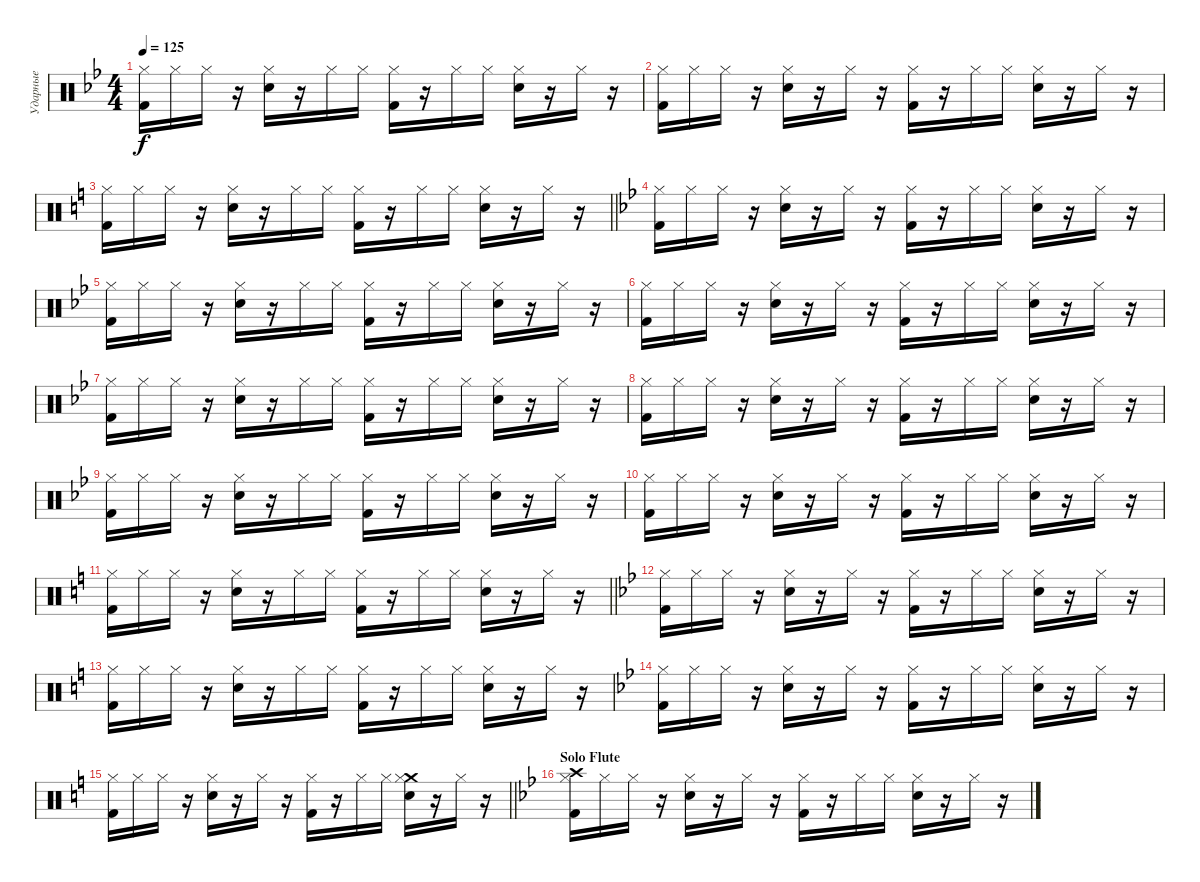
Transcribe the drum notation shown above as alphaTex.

\track ("Ударные" "Ударные") {instrument percussion}
\staff {score}
\articulation defaults
\ts (4 4)
\tempo 125
\clef neutral
\ks bb
("Kick (hit) 2" "Hi-Hat (closed)").16{dy f} "Hi-Hat (closed)".16 "Hi-Hat (closed)".16 r.16 ("Snare (hit) 2" "Hi-Hat (closed)").16 r.16 "Hi-Hat (closed)".16 "Hi-Hat (closed)".16 ("Kick (hit) 2" "Hi-Hat (closed)").16 r.16 "Hi-Hat (closed)".16 "Hi-Hat (closed)".16 ("Snare (hit) 2" "Hi-Hat (closed)").16 r.16 "Hi-Hat (closed)".16 r.16 |
("Kick (hit) 2" "Hi-Hat (closed)").16 "Hi-Hat (closed)".16 "Hi-Hat (closed)".16 r.16 ("Snare (hit) 2" "Hi-Hat (closed)").16 r.16 "Hi-Hat (closed)".16 r.16 ("Kick (hit) 2" "Hi-Hat (closed)").16 r.16 "Hi-Hat (closed)".16 "Hi-Hat (closed)".16 ("Snare (hit) 2" "Hi-Hat (closed)").16 r.16 "Hi-Hat (closed)".16 r.16 |
\barLineRight lightlight
\ks c
("Kick (hit) 2" "Hi-Hat (closed)").16 "Hi-Hat (closed)".16 "Hi-Hat (closed)".16 r.16 ("Snare (hit) 2" "Hi-Hat (closed)").16 r.16 "Hi-Hat (closed)".16 "Hi-Hat (closed)".16 ("Kick (hit) 2" "Hi-Hat (closed)").16 r.16 "Hi-Hat (closed)".16 "Hi-Hat (closed)".16 ("Snare (hit) 2" "Hi-Hat (closed)").16 r.16 "Hi-Hat (closed)".16 r.16 |
\ks bb
("Kick (hit) 2" "Hi-Hat (closed)").16 "Hi-Hat (closed)".16 "Hi-Hat (closed)".16 r.16 ("Snare (hit) 2" "Hi-Hat (closed)").16 r.16 "Hi-Hat (closed)".16 r.16 ("Kick (hit) 2" "Hi-Hat (closed)").16 r.16 "Hi-Hat (closed)".16 "Hi-Hat (closed)".16 ("Snare (hit) 2" "Hi-Hat (closed)").16 r.16 "Hi-Hat (closed)".16 r.16 |
("Kick (hit) 2" "Hi-Hat (closed)").16 "Hi-Hat (closed)".16 "Hi-Hat (closed)".16 r.16 ("Snare (hit) 2" "Hi-Hat (closed)").16 r.16 "Hi-Hat (closed)".16 "Hi-Hat (closed)".16 ("Kick (hit) 2" "Hi-Hat (closed)").16 r.16 "Hi-Hat (closed)".16 "Hi-Hat (closed)".16 ("Snare (hit) 2" "Hi-Hat (closed)").16 r.16 "Hi-Hat (closed)".16 r.16 |
("Kick (hit) 2" "Hi-Hat (closed)").16 "Hi-Hat (closed)".16 "Hi-Hat (closed)".16 r.16 ("Snare (hit) 2" "Hi-Hat (closed)").16 r.16 "Hi-Hat (closed)".16 r.16 ("Kick (hit) 2" "Hi-Hat (closed)").16 r.16 "Hi-Hat (closed)".16 "Hi-Hat (closed)".16 ("Snare (hit) 2" "Hi-Hat (closed)").16 r.16 "Hi-Hat (closed)".16 r.16 |
("Kick (hit) 2" "Hi-Hat (closed)").16 "Hi-Hat (closed)".16 "Hi-Hat (closed)".16 r.16 ("Snare (hit) 2" "Hi-Hat (closed)").16 r.16 "Hi-Hat (closed)".16 "Hi-Hat (closed)".16 ("Kick (hit) 2" "Hi-Hat (closed)").16 r.16 "Hi-Hat (closed)".16 "Hi-Hat (closed)".16 ("Snare (hit) 2" "Hi-Hat (closed)").16 r.16 "Hi-Hat (closed)".16 r.16 |
("Kick (hit) 2" "Hi-Hat (closed)").16 "Hi-Hat (closed)".16 "Hi-Hat (closed)".16 r.16 ("Snare (hit) 2" "Hi-Hat (closed)").16 r.16 "Hi-Hat (closed)".16 r.16 ("Kick (hit) 2" "Hi-Hat (closed)").16 r.16 "Hi-Hat (closed)".16 "Hi-Hat (closed)".16 ("Snare (hit) 2" "Hi-Hat (closed)").16 r.16 "Hi-Hat (closed)".16 r.16 |
("Kick (hit) 2" "Hi-Hat (closed)").16 "Hi-Hat (closed)".16 "Hi-Hat (closed)".16 r.16 ("Snare (hit) 2" "Hi-Hat (closed)").16 r.16 "Hi-Hat (closed)".16 "Hi-Hat (closed)".16 ("Kick (hit) 2" "Hi-Hat (closed)").16 r.16 "Hi-Hat (closed)".16 "Hi-Hat (closed)".16 ("Snare (hit) 2" "Hi-Hat (closed)").16 r.16 "Hi-Hat (closed)".16 r.16 |
("Kick (hit) 2" "Hi-Hat (closed)").16 "Hi-Hat (closed)".16 "Hi-Hat (closed)".16 r.16 ("Snare (hit) 2" "Hi-Hat (closed)").16 r.16 "Hi-Hat (closed)".16 r.16 ("Kick (hit) 2" "Hi-Hat (closed)").16 r.16 "Hi-Hat (closed)".16 "Hi-Hat (closed)".16 ("Snare (hit) 2" "Hi-Hat (closed)").16 r.16 "Hi-Hat (closed)".16 r.16 |
\barLineRight lightlight
\ks c
("Kick (hit) 2" "Hi-Hat (closed)").16 "Hi-Hat (closed)".16 "Hi-Hat (closed)".16 r.16 ("Snare (hit) 2" "Hi-Hat (closed)").16 r.16 "Hi-Hat (closed)".16 "Hi-Hat (closed)".16 ("Kick (hit) 2" "Hi-Hat (closed)").16 r.16 "Hi-Hat (closed)".16 "Hi-Hat (closed)".16 ("Snare (hit) 2" "Hi-Hat (closed)").16 r.16 "Hi-Hat (closed)".16 r.16 |
\ks bb
("Kick (hit) 2" "Hi-Hat (closed)").16 "Hi-Hat (closed)".16 "Hi-Hat (closed)".16 r.16 ("Snare (hit) 2" "Hi-Hat (closed)").16 r.16 "Hi-Hat (closed)".16 r.16 ("Kick (hit) 2" "Hi-Hat (closed)").16 r.16 "Hi-Hat (closed)".16 "Hi-Hat (closed)".16 ("Snare (hit) 2" "Hi-Hat (closed)").16 r.16 "Hi-Hat (closed)".16 r.16 |
\ks c
("Kick (hit) 2" "Hi-Hat (closed)").16 "Hi-Hat (closed)".16 "Hi-Hat (closed)".16 r.16 ("Snare (hit) 2" "Hi-Hat (closed)").16 r.16 "Hi-Hat (closed)".16 "Hi-Hat (closed)".16 ("Kick (hit) 2" "Hi-Hat (closed)").16 r.16 "Hi-Hat (closed)".16 "Hi-Hat (closed)".16 ("Snare (hit) 2" "Hi-Hat (closed)").16 r.16 "Hi-Hat (closed)".16 r.16 |
\ks bb
("Kick (hit) 2" "Hi-Hat (closed)").16 "Hi-Hat (closed)".16 "Hi-Hat (closed)".16 r.16 ("Snare (hit) 2" "Hi-Hat (closed)").16 r.16 "Hi-Hat (closed)".16 r.16 ("Kick (hit) 2" "Hi-Hat (closed)").16 r.16 "Hi-Hat (closed)".16 "Hi-Hat (closed)".16 ("Snare (hit) 2" "Hi-Hat (closed)").16 r.16 "Hi-Hat (closed)".16 r.16 |
\barLineRight lightlight
\ks c
("Kick (hit) 2" "Hi-Hat (closed)").16 "Hi-Hat (closed)".16 "Hi-Hat (closed)".16 r.16 ("Snare (hit) 2" "Hi-Hat (closed)").16 r.16 "Hi-Hat (closed)".16 r.16 ("Kick (hit) 2" "Hi-Hat (closed)").16 r.16 "Hi-Hat (closed)".16 "Hi-Hat (closed)".16 ("Snare (hit) 2" "Crash medium (hit)" "Hi-Hat (closed)").16 r.16 "Hi-Hat (closed)".16 r.16 |
\section ("" "Solo Flute")
\ks bb
("Kick (hit) 2" "Crash high (hit)" "Hi-Hat (closed)").16 "Hi-Hat (closed)".16 "Hi-Hat (closed)".16 r.16 ("Snare (hit) 2" "Hi-Hat (closed)").16 r.16 "Hi-Hat (closed)".16 r.16 ("Kick (hit) 2" "Hi-Hat (closed)").16 r.16 "Hi-Hat (closed)".16 "Hi-Hat (closed)".16 ("Snare (hit) 2" "Hi-Hat (closed)").16 r.16 "Hi-Hat (closed)".16 r.16
